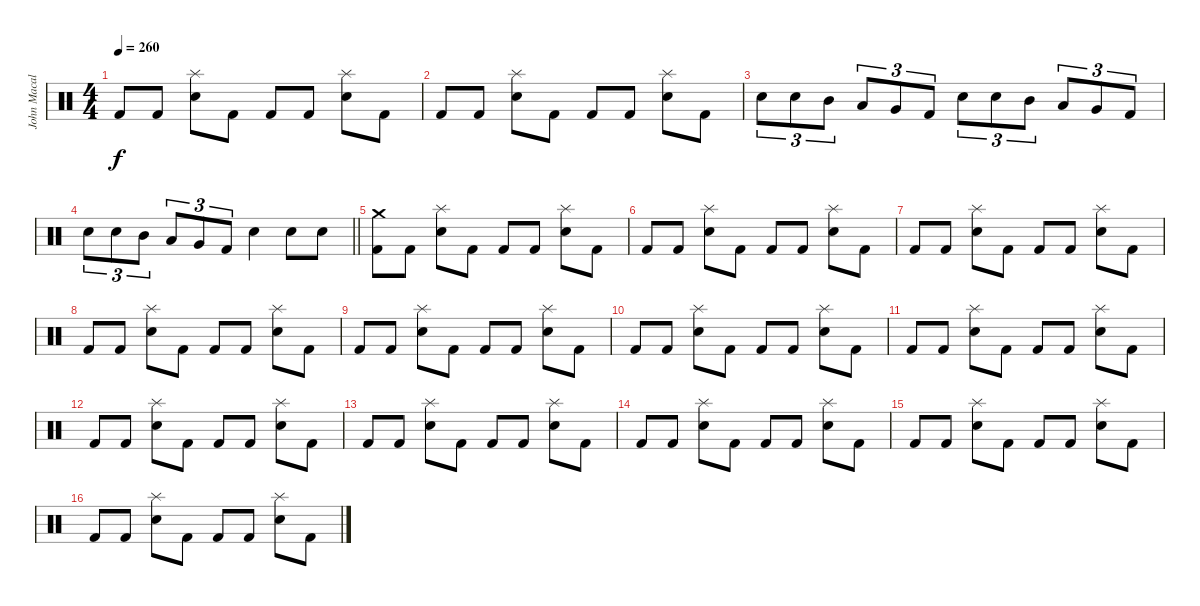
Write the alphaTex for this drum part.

\track ("John Macaluso" "John Macal") {instrument percussion}
\staff {score}
\articulation defaults
\ts (4 4)
\tempo 260
\clef neutral
\ks c "Kick (hit) 2".8{dy f} "Kick (hit) 2".8
("Splash (hit)" "Snare (hit) 2").8 "Kick (hit) 2".8 "Kick (hit) 2".8 "Kick (hit) 2".8 ("Splash (hit)" "Snare (hit) 2").8 "Kick (hit) 2".8 |
"Kick (hit) 2".8 "Kick (hit) 2".8 ("Splash (hit)" "Snare (hit) 2").8 "Kick (hit) 2".8 "Kick (hit) 2".8 "Kick (hit) 2".8 ("Splash (hit)" "Snare (hit) 2").8 "Kick (hit) 2".8 |
"Snare (hit) 2".8{tu (3 2)} "Snare (hit) 2".8{tu (3 2)} "Mid Tom (hit)".8{tu (3 2)} "Low Tom (hit)".8{tu (3 2)} "Very Low Tom (hit)".8{tu (3 2)} "Kick (hit) 2".8{tu (3 2)} "Snare (hit) 2".8{tu (3 2)} "Snare (hit) 2".8{tu (3 2)} "Mid Tom (hit)".8{tu (3 2)} "Low Tom (hit)".8{tu (3 2)} "Very Low Tom (hit)".8{tu (3 2)} "Kick (hit) 2".8{tu (3 2)} |
\barLineRight lightlight "Snare (hit) 2".8{tu (3 2)} "Snare (hit) 2".8{tu (3 2)} "Mid Tom (hit)".8{tu (3 2)} "Low Tom (hit)".8{tu (3 2)} "Very Low Tom (hit)".8{tu (3 2)} "Kick (hit) 2".8{tu (3 2)} "Snare (hit) 2".4 "Snare (hit) 2".8 "Snare (hit) 2".8
|
("Crash medium (hit)" "Kick (hit) 2").8 "Kick (hit) 2".8 ("Splash (hit)" "Snare (hit) 2").8 "Kick (hit) 2".8 "Kick (hit) 2".8 "Kick (hit) 2".8 ("Splash (hit)" "Snare (hit) 2").8 "Kick (hit) 2".8 |
"Kick (hit) 2".8 "Kick (hit) 2".8 ("Splash (hit)" "Snare (hit) 2").8 "Kick (hit) 2".8 "Kick (hit) 2".8 "Kick (hit) 2".8 ("Splash (hit)" "Snare (hit) 2").8 "Kick (hit) 2".8 |
"Kick (hit) 2".8 "Kick (hit) 2".8 ("Splash (hit)" "Snare (hit) 2").8 "Kick (hit) 2".8 "Kick (hit) 2".8 "Kick (hit) 2".8 ("Splash (hit)" "Snare (hit) 2").8 "Kick (hit) 2".8 |
"Kick (hit) 2".8 "Kick (hit) 2".8 ("Splash (hit)" "Snare (hit) 2").8 "Kick (hit) 2".8 "Kick (hit) 2".8 "Kick (hit) 2".8 ("Splash (hit)" "Snare (hit) 2").8 "Kick (hit) 2".8 |
"Kick (hit) 2".8 "Kick (hit) 2".8 ("Splash (hit)" "Snare (hit) 2").8 "Kick (hit) 2".8 "Kick (hit) 2".8 "Kick (hit) 2".8 ("Splash (hit)" "Snare (hit) 2").8 "Kick (hit) 2".8 |
"Kick (hit) 2".8 "Kick (hit) 2".8 ("Splash (hit)" "Snare (hit) 2").8 "Kick (hit) 2".8 "Kick (hit) 2".8 "Kick (hit) 2".8 ("Splash (hit)" "Snare (hit) 2").8 "Kick (hit) 2".8 |
"Kick (hit) 2".8 "Kick (hit) 2".8 ("Splash (hit)" "Snare (hit) 2").8 "Kick (hit) 2".8 "Kick (hit) 2".8 "Kick (hit) 2".8 ("Splash (hit)" "Snare (hit) 2").8 "Kick (hit) 2".8 |
"Kick (hit) 2".8 "Kick (hit) 2".8 ("Splash (hit)" "Snare (hit) 2").8 "Kick (hit) 2".8 "Kick (hit) 2".8 "Kick (hit) 2".8 ("Splash (hit)" "Snare (hit) 2").8 "Kick (hit) 2".8 |
"Kick (hit) 2".8 "Kick (hit) 2".8 ("Splash (hit)" "Snare (hit) 2").8 "Kick (hit) 2".8 "Kick (hit) 2".8 "Kick (hit) 2".8 ("Splash (hit)" "Snare (hit) 2").8 "Kick (hit) 2".8 |
"Kick (hit) 2".8 "Kick (hit) 2".8 ("Splash (hit)" "Snare (hit) 2").8 "Kick (hit) 2".8 "Kick (hit) 2".8 "Kick (hit) 2".8 ("Splash (hit)" "Snare (hit) 2").8 "Kick (hit) 2".8 |
"Kick (hit) 2".8 "Kick (hit) 2".8 ("Splash (hit)" "Snare (hit) 2").8 "Kick (hit) 2".8 "Kick (hit) 2".8 "Kick (hit) 2".8 ("Splash (hit)" "Snare (hit) 2").8 "Kick (hit) 2".8 |
"Kick (hit) 2".8 "Kick (hit) 2".8 ("Splash (hit)" "Snare (hit) 2").8 "Kick (hit) 2".8 "Kick (hit) 2".8 "Kick (hit) 2".8 ("Splash (hit)" "Snare (hit) 2").8 "Kick (hit) 2".8
